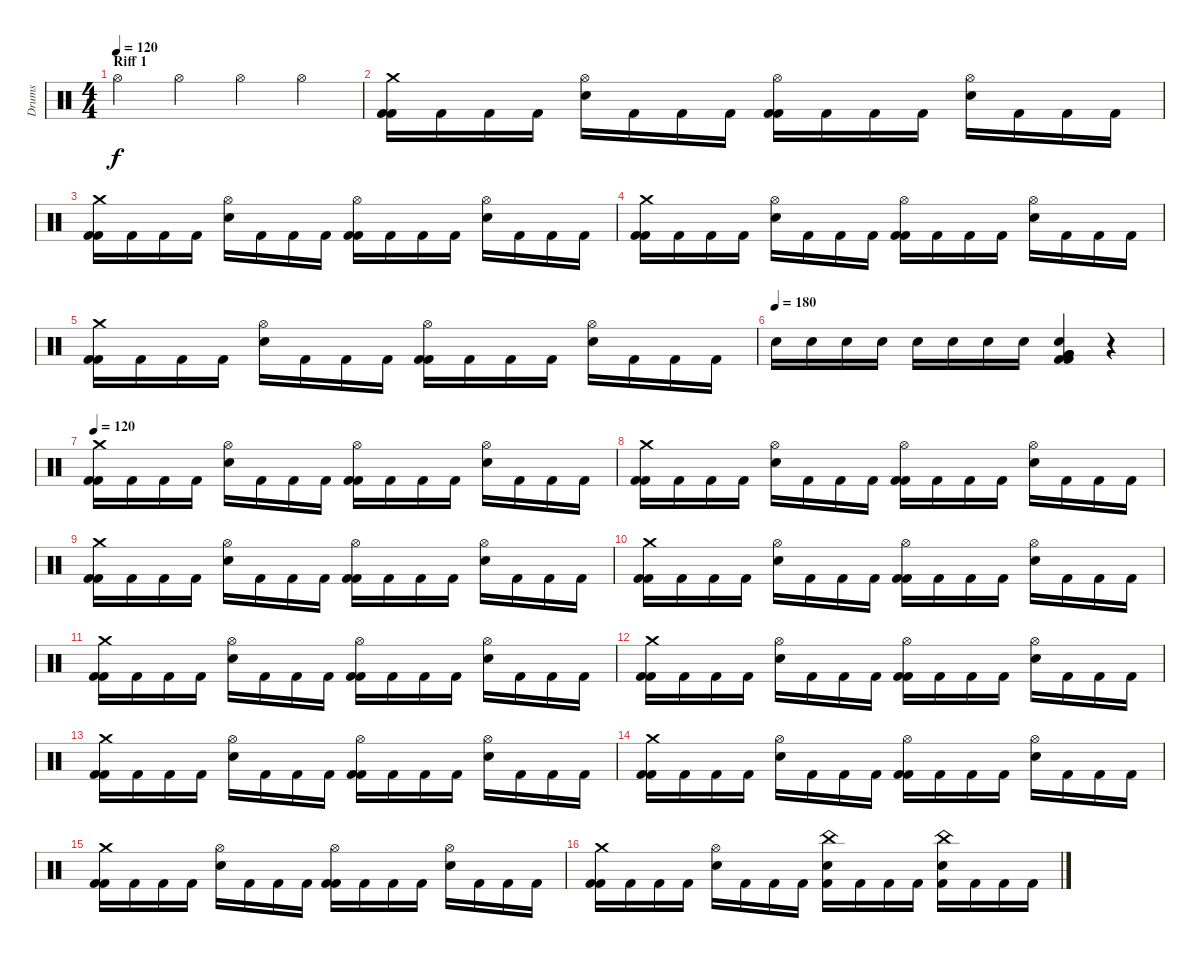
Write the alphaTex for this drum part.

\track ("Drums" "Drums") {instrument percussion}
\staff {score}
\articulation defaults
\ts (4 4)
\section ("" "Riff 1")
\tempo 120
\clef neutral
\ks c "Hi-Hat (open)".4{dy f} "Hi-Hat (open)".4 "Hi-Hat (open)".4 "Hi-Hat (open)".4
|
("Crash medium (hit)" "Kick (hit) 2" "Kick (hit) 2").16 "Kick (hit) 2".16 "Kick (hit) 2".16 "Kick (hit) 2".16 ("Electric Snare (hit)" "Hi-Hat (open)").16 "Kick (hit) 2".16 "Kick (hit) 2".16 "Kick (hit) 2".16 ("Hi-Hat (open)" "Kick (hit) 2" "Kick (hit) 2").16 "Kick (hit) 2".16 "Kick (hit) 2".16 "Kick (hit) 2".16 ("Electric Snare (hit)" "Hi-Hat (open)").16 "Kick (hit) 2".16 "Kick (hit) 2".16 "Kick (hit) 2".16 |
("Crash medium (hit)" "Kick (hit) 2" "Kick (hit) 2").16 "Kick (hit) 2".16 "Kick (hit) 2".16 "Kick (hit) 2".16 ("Electric Snare (hit)" "Hi-Hat (open)").16 "Kick (hit) 2".16 "Kick (hit) 2".16 "Kick (hit) 2".16 ("Hi-Hat (open)" "Kick (hit) 2" "Kick (hit) 2").16 "Kick (hit) 2".16 "Kick (hit) 2".16 "Kick (hit) 2".16 ("Electric Snare (hit)" "Hi-Hat (open)").16 "Kick (hit) 2".16 "Kick (hit) 2".16 "Kick (hit) 2".16 |
("Crash medium (hit)" "Kick (hit) 2" "Kick (hit) 2").16 "Kick (hit) 2".16 "Kick (hit) 2".16 "Kick (hit) 2".16 ("Electric Snare (hit)" "Hi-Hat (open)").16 "Kick (hit) 2".16 "Kick (hit) 2".16 "Kick (hit) 2".16 ("Hi-Hat (open)" "Kick (hit) 2" "Kick (hit) 2").16 "Kick (hit) 2".16 "Kick (hit) 2".16 "Kick (hit) 2".16 ("Electric Snare (hit)" "Hi-Hat (open)").16 "Kick (hit) 2".16 "Kick (hit) 2".16 "Kick (hit) 2".16 |
("Crash medium (hit)" "Kick (hit) 2" "Kick (hit) 2").16 "Kick (hit) 2".16 "Kick (hit) 2".16 "Kick (hit) 2".16 ("Electric Snare (hit)" "Hi-Hat (open)").16 "Kick (hit) 2".16 "Kick (hit) 2".16 "Kick (hit) 2".16 ("Hi-Hat (open)" "Kick (hit) 2" "Kick (hit) 2").16 "Kick (hit) 2".16 "Kick (hit) 2".16 "Kick (hit) 2".16 ("Electric Snare (hit)" "Hi-Hat (open)").16 "Kick (hit) 2".16 "Kick (hit) 2".16 "Kick (hit) 2".16 |
\tempo (180)
"Electric Snare (hit)".16 "Electric Snare (hit)".16 "Electric Snare (hit)".16 "Electric Snare (hit)".16 "Electric Snare (hit)".16 "Electric Snare (hit)".16 "Electric Snare (hit)".16 "Electric Snare (hit)".16 ("Kick (hit) 2" "Kick (hit) 2" "Electric Snare (hit)" "Very Low Tom (hit)" "Very Low Tom (hit)" "Very Low Tom (hit)").4 r.4 |
\tempo 120
("Crash medium (hit)" "Kick (hit) 2" "Kick (hit) 2").16 "Kick (hit) 2".16 "Kick (hit) 2".16 "Kick (hit) 2".16 ("Electric Snare (hit)" "Hi-Hat (open)").16 "Kick (hit) 2".16 "Kick (hit) 2".16 "Kick (hit) 2".16 ("Hi-Hat (open)" "Kick (hit) 2" "Kick (hit) 2").16 "Kick (hit) 2".16 "Kick (hit) 2".16 "Kick (hit) 2".16 ("Electric Snare (hit)" "Hi-Hat (open)").16 "Kick (hit) 2".16 "Kick (hit) 2".16 "Kick (hit) 2".16 |
("Crash medium (hit)" "Kick (hit) 2" "Kick (hit) 2").16 "Kick (hit) 2".16 "Kick (hit) 2".16 "Kick (hit) 2".16 ("Electric Snare (hit)" "Hi-Hat (open)").16 "Kick (hit) 2".16 "Kick (hit) 2".16 "Kick (hit) 2".16 ("Hi-Hat (open)" "Kick (hit) 2" "Kick (hit) 2").16 "Kick (hit) 2".16 "Kick (hit) 2".16 "Kick (hit) 2".16 ("Electric Snare (hit)" "Hi-Hat (open)").16 "Kick (hit) 2".16 "Kick (hit) 2".16 "Kick (hit) 2".16 |
("Crash medium (hit)" "Kick (hit) 2" "Kick (hit) 2").16 "Kick (hit) 2".16 "Kick (hit) 2".16 "Kick (hit) 2".16 ("Electric Snare (hit)" "Hi-Hat (open)").16 "Kick (hit) 2".16 "Kick (hit) 2".16 "Kick (hit) 2".16 ("Hi-Hat (open)" "Kick (hit) 2" "Kick (hit) 2").16 "Kick (hit) 2".16 "Kick (hit) 2".16 "Kick (hit) 2".16 ("Electric Snare (hit)" "Hi-Hat (open)").16 "Kick (hit) 2".16 "Kick (hit) 2".16 "Kick (hit) 2".16 |
("Crash medium (hit)" "Kick (hit) 2" "Kick (hit) 2").16 "Kick (hit) 2".16 "Kick (hit) 2".16 "Kick (hit) 2".16 ("Electric Snare (hit)" "Hi-Hat (open)").16 "Kick (hit) 2".16 "Kick (hit) 2".16 "Kick (hit) 2".16 ("Hi-Hat (open)" "Kick (hit) 2" "Kick (hit) 2").16 "Kick (hit) 2".16 "Kick (hit) 2".16 "Kick (hit) 2".16 ("Electric Snare (hit)" "Hi-Hat (open)").16 "Kick (hit) 2".16 "Kick (hit) 2".16 "Kick (hit) 2".16 |
("Crash medium (hit)" "Kick (hit) 2" "Kick (hit) 2").16 "Kick (hit) 2".16 "Kick (hit) 2".16 "Kick (hit) 2".16 ("Electric Snare (hit)" "Hi-Hat (open)").16 "Kick (hit) 2".16 "Kick (hit) 2".16 "Kick (hit) 2".16 ("Hi-Hat (open)" "Kick (hit) 2" "Kick (hit) 2").16 "Kick (hit) 2".16 "Kick (hit) 2".16 "Kick (hit) 2".16 ("Electric Snare (hit)" "Hi-Hat (open)").16 "Kick (hit) 2".16 "Kick (hit) 2".16 "Kick (hit) 2".16 |
("Crash medium (hit)" "Kick (hit) 2" "Kick (hit) 2").16 "Kick (hit) 2".16 "Kick (hit) 2".16 "Kick (hit) 2".16 ("Electric Snare (hit)" "Hi-Hat (open)").16 "Kick (hit) 2".16 "Kick (hit) 2".16 "Kick (hit) 2".16 ("Hi-Hat (open)" "Kick (hit) 2" "Kick (hit) 2").16 "Kick (hit) 2".16 "Kick (hit) 2".16 "Kick (hit) 2".16 ("Electric Snare (hit)" "Hi-Hat (open)").16 "Kick (hit) 2".16 "Kick (hit) 2".16 "Kick (hit) 2".16 |
("Crash medium (hit)" "Kick (hit) 2" "Kick (hit) 2").16 "Kick (hit) 2".16 "Kick (hit) 2".16 "Kick (hit) 2".16 ("Electric Snare (hit)" "Hi-Hat (open)").16 "Kick (hit) 2".16 "Kick (hit) 2".16 "Kick (hit) 2".16 ("Hi-Hat (open)" "Kick (hit) 2" "Kick (hit) 2").16 "Kick (hit) 2".16 "Kick (hit) 2".16 "Kick (hit) 2".16 ("Electric Snare (hit)" "Hi-Hat (open)").16 "Kick (hit) 2".16 "Kick (hit) 2".16 "Kick (hit) 2".16 |
("Crash medium (hit)" "Kick (hit) 2" "Kick (hit) 2").16 "Kick (hit) 2".16 "Kick (hit) 2".16 "Kick (hit) 2".16 ("Electric Snare (hit)" "Hi-Hat (open)").16 "Kick (hit) 2".16 "Kick (hit) 2".16 "Kick (hit) 2".16 ("Hi-Hat (open)" "Kick (hit) 2" "Kick (hit) 2").16 "Kick (hit) 2".16 "Kick (hit) 2".16 "Kick (hit) 2".16 ("Electric Snare (hit)" "Hi-Hat (open)").16 "Kick (hit) 2".16 "Kick (hit) 2".16 "Kick (hit) 2".16 |
("Crash medium (hit)" "Kick (hit) 2" "Kick (hit) 2").16 "Kick (hit) 2".16 "Kick (hit) 2".16 "Kick (hit) 2".16 ("Electric Snare (hit)" "Hi-Hat (open)").16 "Kick (hit) 2".16 "Kick (hit) 2".16 "Kick (hit) 2".16 ("Hi-Hat (open)" "Kick (hit) 2" "Kick (hit) 2").16 "Kick (hit) 2".16 "Kick (hit) 2".16 "Kick (hit) 2".16 ("Electric Snare (hit)" "Hi-Hat (open)").16 "Kick (hit) 2".16 "Kick (hit) 2".16 "Kick (hit) 2".16 |
("Crash medium (hit)" "Kick (hit) 2" "Kick (hit) 2").16 "Kick (hit) 2".16 "Kick (hit) 2".16 "Kick (hit) 2".16 ("Electric Snare (hit)" "Hi-Hat (open)").16 "Kick (hit) 2".16 "Kick (hit) 2".16 "Kick (hit) 2".16 ("Electric Snare (hit)" "China (hit)" "Kick (hit) 2").16 "Kick (hit) 2".16 "Kick (hit) 2".16 "Kick (hit) 2".16 ("Electric Snare (hit)" "China (hit)" "Kick (hit) 2").16 "Kick (hit) 2".16 "Kick (hit) 2".16 "Kick (hit) 2".16
